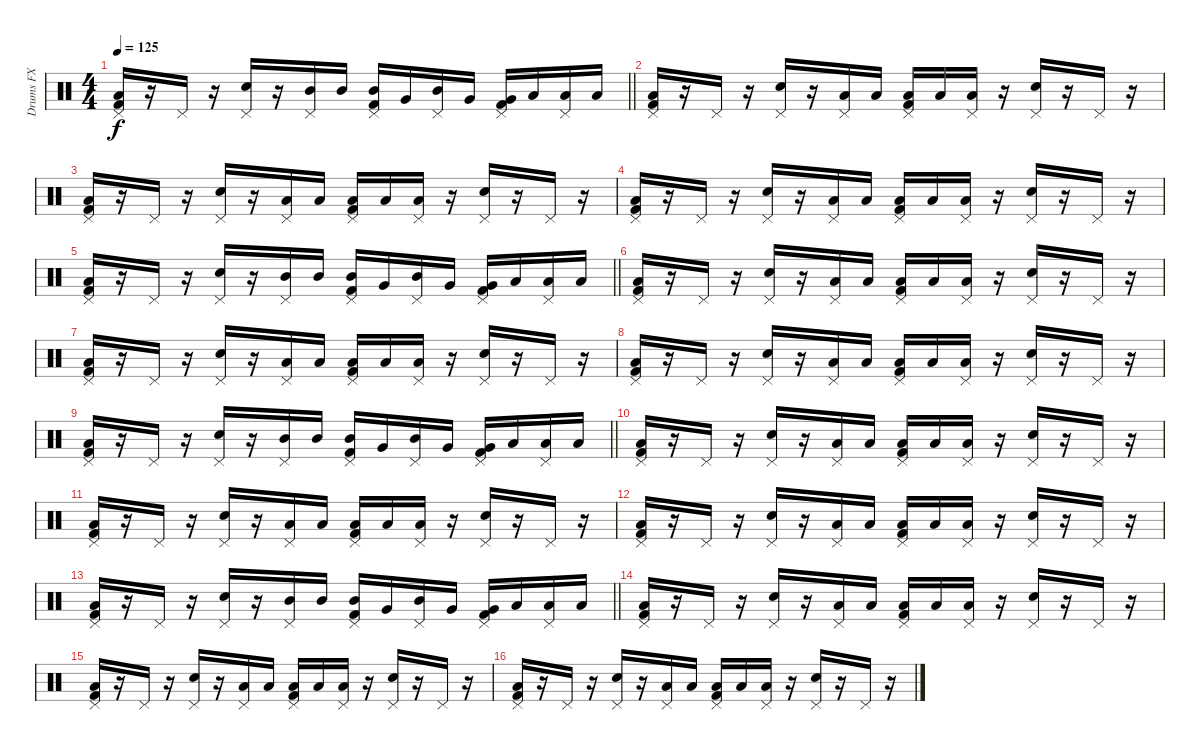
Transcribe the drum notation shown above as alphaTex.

\track ("Drums FX" "Drums FX") {instrument percussion}
\staff {score}
\articulation defaults
\ts (4 4)
\tempo 125
\clef neutral
\barLineRight lightlight
\ks c
("Low Floor Tom (hit)" "Pedal Hi-Hat (hit)" "Kick (hit) 2").16{dy f} r.16 "Pedal Hi-Hat (hit)".16 r.16 ("Snare (hit) 2" "Pedal Hi-Hat (hit)").16 r.16 ("Mid Tom (hit)" "Pedal Hi-Hat (hit)").16 "Mid Tom (hit)".16 ("Mid Tom (hit)" "Pedal Hi-Hat (hit)" "Kick (hit) 2").16 "Very Low Tom (hit)".16 ("Mid Tom (hit)" "Pedal Hi-Hat (hit)").16 "Very Low Tom (hit)".16 ("Very Low Tom (hit)" "Pedal Hi-Hat (hit)" "Kick (hit) 2").16 "Low Floor Tom (hit)".16 ("Low Floor Tom (hit)" "Pedal Hi-Hat (hit)").16 "Low Floor Tom (hit)".16 |
("Low Floor Tom (hit)" "Pedal Hi-Hat (hit)" "Kick (hit) 2").16 r.16 "Pedal Hi-Hat (hit)".16 r.16 ("Snare (hit) 2" "Pedal Hi-Hat (hit)").16 r.16 ("Low Floor Tom (hit)" "Pedal Hi-Hat (hit)").16 "Low Floor Tom (hit)".16 ("Low Floor Tom (hit)" "Pedal Hi-Hat (hit)" "Kick (hit) 2").16 "Low Floor Tom (hit)".16 ("Low Floor Tom (hit)" "Pedal Hi-Hat (hit)").16 r.16 ("Snare (hit) 2" "Pedal Hi-Hat (hit)").16 r.16 "Pedal Hi-Hat (hit)".16 r.16 |
("Low Floor Tom (hit)" "Pedal Hi-Hat (hit)" "Kick (hit) 2").16 r.16 "Pedal Hi-Hat (hit)".16 r.16 ("Snare (hit) 2" "Pedal Hi-Hat (hit)").16 r.16 ("Low Floor Tom (hit)" "Pedal Hi-Hat (hit)").16 "Low Floor Tom (hit)".16 ("Low Floor Tom (hit)" "Pedal Hi-Hat (hit)" "Kick (hit) 2").16 "Low Floor Tom (hit)".16 ("Low Floor Tom (hit)" "Pedal Hi-Hat (hit)").16 r.16 ("Snare (hit) 2" "Pedal Hi-Hat (hit)").16 r.16 "Pedal Hi-Hat (hit)".16 r.16 |
("Low Floor Tom (hit)" "Pedal Hi-Hat (hit)" "Kick (hit) 2").16 r.16 "Pedal Hi-Hat (hit)".16 r.16 ("Snare (hit) 2" "Pedal Hi-Hat (hit)").16 r.16 ("Low Floor Tom (hit)" "Pedal Hi-Hat (hit)").16 "Low Floor Tom (hit)".16 ("Low Floor Tom (hit)" "Pedal Hi-Hat (hit)" "Kick (hit) 2").16 "Low Floor Tom (hit)".16 ("Low Floor Tom (hit)" "Pedal Hi-Hat (hit)").16 r.16 ("Snare (hit) 2" "Pedal Hi-Hat (hit)").16 r.16 "Pedal Hi-Hat (hit)".16 r.16 |
\barLineRight lightlight
("Low Floor Tom (hit)" "Pedal Hi-Hat (hit)" "Kick (hit) 2").16 r.16 "Pedal Hi-Hat (hit)".16 r.16 ("Snare (hit) 2" "Pedal Hi-Hat (hit)").16 r.16 ("Mid Tom (hit)" "Pedal Hi-Hat (hit)").16 "Mid Tom (hit)".16 ("Mid Tom (hit)" "Pedal Hi-Hat (hit)" "Kick (hit) 2").16 "Very Low Tom (hit)".16 ("Mid Tom (hit)" "Pedal Hi-Hat (hit)").16 "Very Low Tom (hit)".16 ("Very Low Tom (hit)" "Pedal Hi-Hat (hit)" "Kick (hit) 2").16 "Low Floor Tom (hit)".16 ("Low Floor Tom (hit)" "Pedal Hi-Hat (hit)").16 "Low Floor Tom (hit)".16 |
("Low Floor Tom (hit)" "Pedal Hi-Hat (hit)" "Kick (hit) 2").16 r.16 "Pedal Hi-Hat (hit)".16 r.16 ("Snare (hit) 2" "Pedal Hi-Hat (hit)").16 r.16 ("Low Floor Tom (hit)" "Pedal Hi-Hat (hit)").16 "Low Floor Tom (hit)".16 ("Low Floor Tom (hit)" "Pedal Hi-Hat (hit)" "Kick (hit) 2").16 "Low Floor Tom (hit)".16 ("Low Floor Tom (hit)" "Pedal Hi-Hat (hit)").16 r.16 ("Snare (hit) 2" "Pedal Hi-Hat (hit)").16 r.16 "Pedal Hi-Hat (hit)".16 r.16 |
("Low Floor Tom (hit)" "Pedal Hi-Hat (hit)" "Kick (hit) 2").16 r.16 "Pedal Hi-Hat (hit)".16 r.16 ("Snare (hit) 2" "Pedal Hi-Hat (hit)").16 r.16 ("Low Floor Tom (hit)" "Pedal Hi-Hat (hit)").16 "Low Floor Tom (hit)".16 ("Low Floor Tom (hit)" "Pedal Hi-Hat (hit)" "Kick (hit) 2").16 "Low Floor Tom (hit)".16 ("Low Floor Tom (hit)" "Pedal Hi-Hat (hit)").16 r.16 ("Snare (hit) 2" "Pedal Hi-Hat (hit)").16 r.16 "Pedal Hi-Hat (hit)".16 r.16 |
("Low Floor Tom (hit)" "Pedal Hi-Hat (hit)" "Kick (hit) 2").16 r.16 "Pedal Hi-Hat (hit)".16 r.16 ("Snare (hit) 2" "Pedal Hi-Hat (hit)").16 r.16 ("Low Floor Tom (hit)" "Pedal Hi-Hat (hit)").16 "Low Floor Tom (hit)".16 ("Low Floor Tom (hit)" "Pedal Hi-Hat (hit)" "Kick (hit) 2").16 "Low Floor Tom (hit)".16 ("Low Floor Tom (hit)" "Pedal Hi-Hat (hit)").16 r.16 ("Snare (hit) 2" "Pedal Hi-Hat (hit)").16 r.16 "Pedal Hi-Hat (hit)".16 r.16 |
\barLineRight lightlight
("Low Floor Tom (hit)" "Pedal Hi-Hat (hit)" "Kick (hit) 2").16 r.16 "Pedal Hi-Hat (hit)".16 r.16 ("Snare (hit) 2" "Pedal Hi-Hat (hit)").16 r.16 ("Mid Tom (hit)" "Pedal Hi-Hat (hit)").16 "Mid Tom (hit)".16 ("Mid Tom (hit)" "Pedal Hi-Hat (hit)" "Kick (hit) 2").16 "Very Low Tom (hit)".16 ("Mid Tom (hit)" "Pedal Hi-Hat (hit)").16 "Very Low Tom (hit)".16 ("Very Low Tom (hit)" "Pedal Hi-Hat (hit)" "Kick (hit) 2").16 "Low Floor Tom (hit)".16 ("Low Floor Tom (hit)" "Pedal Hi-Hat (hit)").16 "Low Floor Tom (hit)".16 |
("Low Floor Tom (hit)" "Pedal Hi-Hat (hit)" "Kick (hit) 2").16 r.16 "Pedal Hi-Hat (hit)".16 r.16 ("Snare (hit) 2" "Pedal Hi-Hat (hit)").16 r.16 ("Low Floor Tom (hit)" "Pedal Hi-Hat (hit)").16 "Low Floor Tom (hit)".16 ("Low Floor Tom (hit)" "Pedal Hi-Hat (hit)" "Kick (hit) 2").16 "Low Floor Tom (hit)".16 ("Low Floor Tom (hit)" "Pedal Hi-Hat (hit)").16 r.16 ("Snare (hit) 2" "Pedal Hi-Hat (hit)").16 r.16 "Pedal Hi-Hat (hit)".16 r.16 |
("Low Floor Tom (hit)" "Pedal Hi-Hat (hit)" "Kick (hit) 2").16 r.16 "Pedal Hi-Hat (hit)".16 r.16 ("Snare (hit) 2" "Pedal Hi-Hat (hit)").16 r.16 ("Low Floor Tom (hit)" "Pedal Hi-Hat (hit)").16 "Low Floor Tom (hit)".16 ("Low Floor Tom (hit)" "Pedal Hi-Hat (hit)" "Kick (hit) 2").16 "Low Floor Tom (hit)".16 ("Low Floor Tom (hit)" "Pedal Hi-Hat (hit)").16 r.16 ("Snare (hit) 2" "Pedal Hi-Hat (hit)").16 r.16 "Pedal Hi-Hat (hit)".16 r.16 |
("Low Floor Tom (hit)" "Pedal Hi-Hat (hit)" "Kick (hit) 2").16 r.16 "Pedal Hi-Hat (hit)".16 r.16 ("Snare (hit) 2" "Pedal Hi-Hat (hit)").16 r.16 ("Low Floor Tom (hit)" "Pedal Hi-Hat (hit)").16 "Low Floor Tom (hit)".16 ("Low Floor Tom (hit)" "Pedal Hi-Hat (hit)" "Kick (hit) 2").16 "Low Floor Tom (hit)".16 ("Low Floor Tom (hit)" "Pedal Hi-Hat (hit)").16 r.16 ("Snare (hit) 2" "Pedal Hi-Hat (hit)").16 r.16 "Pedal Hi-Hat (hit)".16 r.16 |
\barLineRight lightlight
("Low Floor Tom (hit)" "Pedal Hi-Hat (hit)" "Kick (hit) 2").16 r.16 "Pedal Hi-Hat (hit)".16 r.16 ("Snare (hit) 2" "Pedal Hi-Hat (hit)").16 r.16 ("Mid Tom (hit)" "Pedal Hi-Hat (hit)").16 "Mid Tom (hit)".16 ("Mid Tom (hit)" "Pedal Hi-Hat (hit)" "Kick (hit) 2").16 "Very Low Tom (hit)".16 ("Mid Tom (hit)" "Pedal Hi-Hat (hit)").16 "Very Low Tom (hit)".16 ("Very Low Tom (hit)" "Pedal Hi-Hat (hit)" "Kick (hit) 2").16 "Low Floor Tom (hit)".16 ("Low Floor Tom (hit)" "Pedal Hi-Hat (hit)").16 "Low Floor Tom (hit)".16 |
("Low Floor Tom (hit)" "Pedal Hi-Hat (hit)" "Kick (hit) 2").16 r.16 "Pedal Hi-Hat (hit)".16 r.16 ("Snare (hit) 2" "Pedal Hi-Hat (hit)").16 r.16 ("Low Floor Tom (hit)" "Pedal Hi-Hat (hit)").16 "Low Floor Tom (hit)".16 ("Low Floor Tom (hit)" "Pedal Hi-Hat (hit)" "Kick (hit) 2").16 "Low Floor Tom (hit)".16 ("Low Floor Tom (hit)" "Pedal Hi-Hat (hit)").16 r.16 ("Snare (hit) 2" "Pedal Hi-Hat (hit)").16 r.16 "Pedal Hi-Hat (hit)".16 r.16 |
("Low Floor Tom (hit)" "Pedal Hi-Hat (hit)" "Kick (hit) 2").16 r.16 "Pedal Hi-Hat (hit)".16 r.16 ("Snare (hit) 2" "Pedal Hi-Hat (hit)").16 r.16 ("Low Floor Tom (hit)" "Pedal Hi-Hat (hit)").16 "Low Floor Tom (hit)".16 ("Low Floor Tom (hit)" "Pedal Hi-Hat (hit)" "Kick (hit) 2").16 "Low Floor Tom (hit)".16 ("Low Floor Tom (hit)" "Pedal Hi-Hat (hit)").16 r.16 ("Snare (hit) 2" "Pedal Hi-Hat (hit)").16 r.16 "Pedal Hi-Hat (hit)".16 r.16 |
("Low Floor Tom (hit)" "Pedal Hi-Hat (hit)" "Kick (hit) 2").16 r.16 "Pedal Hi-Hat (hit)".16 r.16 ("Snare (hit) 2" "Pedal Hi-Hat (hit)").16 r.16 ("Low Floor Tom (hit)" "Pedal Hi-Hat (hit)").16 "Low Floor Tom (hit)".16 ("Low Floor Tom (hit)" "Pedal Hi-Hat (hit)" "Kick (hit) 2").16 "Low Floor Tom (hit)".16 ("Low Floor Tom (hit)" "Pedal Hi-Hat (hit)").16 r.16 ("Snare (hit) 2" "Pedal Hi-Hat (hit)").16 r.16 "Pedal Hi-Hat (hit)".16 r.16
